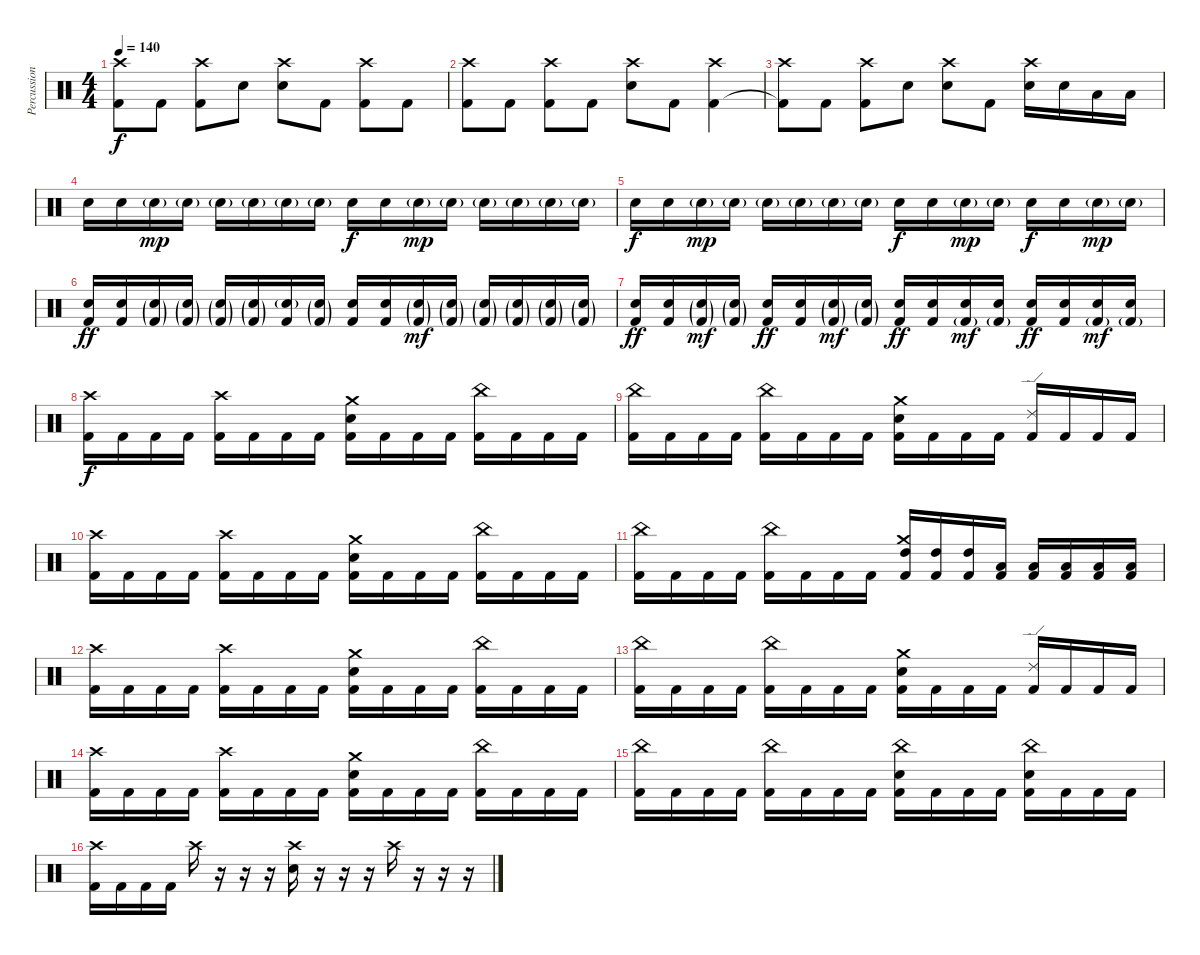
\track ("Percussions" "Percussion") {instrument percussion}
\staff {score}
\articulation defaults
\ts (4 4)
\tempo 140
\clef neutral
\ks c
("Crash high (hit)" "Kick (hit) 2"{t}).8{dy f} "Kick (hit) 2".8 ("Crash high (hit)" "Kick (hit) 2").8 "Electric Snare (hit)".8 ("Crash high (hit)" "Electric Snare (hit)").8 "Kick (hit) 2".8 ("Crash high (hit)" "Kick (hit) 2").8 "Kick (hit) 2".8 |
("Crash high (hit)" "Kick (hit) 2").8 "Kick (hit) 2".8 ("Crash high (hit)" "Kick (hit) 2").8 "Kick (hit) 2".8 ("Crash high (hit)" "Electric Snare (hit)").8 "Kick (hit) 2".8 ("Crash high (hit)" "Kick (hit) 2").4 |
("Crash high (hit)" "Kick (hit) 2"{t}).8 "Kick (hit) 2".8 ("Crash high (hit)" "Kick (hit) 2").8 "Electric Snare (hit)".8 ("Crash high (hit)" "Electric Snare (hit)").8 "Kick (hit) 2".8 ("Crash high (hit)" "Electric Snare (hit)").16 "Electric Snare (hit)".16 "Low Tom (hit)".16 "Low Tom (hit)".16 |
"Electric Snare (hit)".16 "Electric Snare (hit)".16 "Electric Snare (hit)"{g}.16{dy mp} "Electric Snare (hit)"{g}.16 "Electric Snare (hit)"{g}.16 "Electric Snare (hit)"{g}.16 "Electric Snare (hit)"{g}.16 "Electric Snare (hit)"{g}.16 "Electric Snare (hit)".16{dy f} "Electric Snare (hit)".16 "Electric Snare (hit)"{g}.16{dy mp} "Electric Snare (hit)"{g}.16 "Electric Snare (hit)"{g}.16 "Electric Snare (hit)"{g}.16 "Electric Snare (hit)"{g}.16 "Electric Snare (hit)"{g}.16 |
"Electric Snare (hit)".16{dy f} "Electric Snare (hit)".16 "Electric Snare (hit)"{g}.16{dy mp} "Electric Snare (hit)"{g}.16 "Electric Snare (hit)"{g}.16 "Electric Snare (hit)"{g}.16 "Electric Snare (hit)"{g}.16 "Electric Snare (hit)"{g}.16 "Electric Snare (hit)".16{dy f} "Electric Snare (hit)".16 "Electric Snare (hit)"{g}.16{dy mp} "Electric Snare (hit)"{g}.16 "Electric Snare (hit)".16{dy f} "Electric Snare (hit)".16 "Electric Snare (hit)"{g}.16{dy mp} "Electric Snare (hit)"{g}.16 |
("Electric Snare (hit)" "Kick (hit) 2").16{dy ff} ("Electric Snare (hit)" "Kick (hit) 2").16 ("Electric Snare (hit)"{g} "Kick (hit) 2"{g}).16 ("Electric Snare (hit)"{g} "Kick (hit) 2"{g}).16 ("Electric Snare (hit)"{g} "Kick (hit) 2"{g}).16 ("Electric Snare (hit)"{g} "Kick (hit) 2"{g}).16 ("Electric Snare (hit)"{g} "Kick (hit) 2").16 ("Electric Snare (hit)"{g} "Kick (hit) 2"{g}).16 ("Electric Snare (hit)" "Kick (hit) 2").16 ("Electric Snare (hit)" "Kick (hit) 2").16 ("Electric Snare (hit)"{g} "Kick (hit) 2"{g}).16{dy mf} ("Electric Snare (hit)"{g} "Kick (hit) 2"{g}).16 ("Electric Snare (hit)"{g} "Kick (hit) 2"{g}).16 ("Electric Snare (hit)"{g} "Kick (hit) 2"{g}).16 ("Electric Snare (hit)"{g} "Kick (hit) 2"{g}).16 ("Electric Snare (hit)"{g} "Kick (hit) 2"{g}).16 |
("Electric Snare (hit)" "Kick (hit) 2").16{dy ff} ("Electric Snare (hit)" "Kick (hit) 2").16 ("Electric Snare (hit)"{g} "Kick (hit) 2"{g}).16{dy mf} ("Electric Snare (hit)"{g} "Kick (hit) 2"{g}).16 ("Electric Snare (hit)" "Kick (hit) 2").16{dy ff} ("Electric Snare (hit)" "Kick (hit) 2").16 ("Electric Snare (hit)"{g} "Kick (hit) 2"{g}).16{dy mf} ("Electric Snare (hit)"{g} "Kick (hit) 2"{g}).16 ("Electric Snare (hit)" "Kick (hit) 2").16{dy ff} ("Electric Snare (hit)" "Kick (hit) 2").16 ("Electric Snare (hit)" "Kick (hit) 2"{g}).16{dy mf} ("Electric Snare (hit)" "Kick (hit) 2"{g}).16 ("Electric Snare (hit)" "Kick (hit) 2").16{dy ff} ("Electric Snare (hit)" "Kick (hit) 2").16 ("Electric Snare (hit)" "Kick (hit) 2"{g}).16{dy mf} ("Electric Snare (hit)" "Kick (hit) 2"{g}).16 |
("Crash high (hit)" "Kick (hit) 2").16{dy f} "Kick (hit) 2".16 "Kick (hit) 2".16 "Kick (hit) 2".16 ("Crash high (hit)" "Kick (hit) 2").16 "Kick (hit) 2".16 "Kick (hit) 2".16 "Kick (hit) 2".16 ("Crash medium (hit)" "Electric Snare (hit)" "Kick (hit) 2").16 "Kick (hit) 2".16 "Kick (hit) 2".16 "Kick (hit) 2".16 ("China (hit)" "Kick (hit) 2").16 "Kick (hit) 2".16 "Kick (hit) 2".16 "Kick (hit) 2".16 |
("China (hit)" "Kick (hit) 2").16 "Kick (hit) 2".16 "Kick (hit) 2".16 "Kick (hit) 2".16 ("China (hit)" "Kick (hit) 2").16 "Kick (hit) 2".16 "Kick (hit) 2".16 "Kick (hit) 2".16 ("Crash medium (hit)" "Electric Snare (hit)" "Kick (hit) 2").16 "Kick (hit) 2".16 "Kick (hit) 2".16 "Kick (hit) 2".16 ("Ride (edge) 2" "Kick (hit) 2").16 "Kick (hit) 2".16 "Kick (hit) 2".16 "Kick (hit) 2".16 |
("Crash high (hit)" "Kick (hit) 2").16 "Kick (hit) 2".16 "Kick (hit) 2".16 "Kick (hit) 2".16 ("Crash high (hit)" "Kick (hit) 2").16 "Kick (hit) 2".16 "Kick (hit) 2".16 "Kick (hit) 2".16 ("Crash medium (hit)" "Electric Snare (hit)" "Kick (hit) 2").16 "Kick (hit) 2".16 "Kick (hit) 2".16 "Kick (hit) 2".16 ("China (hit)" "Kick (hit) 2").16 "Kick (hit) 2".16 "Kick (hit) 2".16 "Kick (hit) 2".16 |
("China (hit)" "Kick (hit) 2").16 "Kick (hit) 2".16 "Kick (hit) 2".16 "Kick (hit) 2".16 ("China (hit)" "Kick (hit) 2").16 "Kick (hit) 2".16 "Kick (hit) 2".16 "Kick (hit) 2".16 ("Crash medium (hit)" "High Tom (hit)" "Kick (hit) 2").16 ("High Tom (hit)" "Kick (hit) 2").16 ("High Tom (hit)" "Kick (hit) 2").16 ("Low Tom (hit)" "Kick (hit) 2").16 ("Low Tom (hit)" "Kick (hit) 2").16 ("Low Floor Tom (hit)" "Kick (hit) 2").16 ("Low Floor Tom (hit)" "Kick (hit) 2").16 ("Low Floor Tom (hit)" "Kick (hit) 2").16 |
("Crash high (hit)" "Kick (hit) 2").16 "Kick (hit) 2".16 "Kick (hit) 2".16 "Kick (hit) 2".16 ("Crash high (hit)" "Kick (hit) 2").16 "Kick (hit) 2".16 "Kick (hit) 2".16 "Kick (hit) 2".16 ("Crash medium (hit)" "Electric Snare (hit)" "Kick (hit) 2").16 "Kick (hit) 2".16 "Kick (hit) 2".16 "Kick (hit) 2".16 ("China (hit)" "Kick (hit) 2").16 "Kick (hit) 2".16 "Kick (hit) 2".16 "Kick (hit) 2".16 |
("China (hit)" "Kick (hit) 2").16 "Kick (hit) 2".16 "Kick (hit) 2".16 "Kick (hit) 2".16 ("China (hit)" "Kick (hit) 2").16 "Kick (hit) 2".16 "Kick (hit) 2".16 "Kick (hit) 2".16 ("Crash medium (hit)" "Electric Snare (hit)" "Kick (hit) 2").16 "Kick (hit) 2".16 "Kick (hit) 2".16 "Kick (hit) 2".16 ("Ride (edge) 2" "Kick (hit) 2").16 "Kick (hit) 2".16 "Kick (hit) 2".16 "Kick (hit) 2".16 |
("Crash high (hit)" "Kick (hit) 2").16 "Kick (hit) 2".16 "Kick (hit) 2".16 "Kick (hit) 2".16 ("Crash high (hit)" "Kick (hit) 2").16 "Kick (hit) 2".16 "Kick (hit) 2".16 "Kick (hit) 2".16 ("Crash medium (hit)" "Electric Snare (hit)" "Kick (hit) 2").16 "Kick (hit) 2".16 "Kick (hit) 2".16 "Kick (hit) 2".16 ("China (hit)" "Kick (hit) 2").16 "Kick (hit) 2".16 "Kick (hit) 2".16 "Kick (hit) 2".16 |
("China (hit)" "Kick (hit) 2").16 "Kick (hit) 2".16 "Kick (hit) 2".16 "Kick (hit) 2".16 ("China (hit)" "Kick (hit) 2").16 "Kick (hit) 2".16 "Kick (hit) 2".16 "Kick (hit) 2".16 ("China (hit)" "Electric Snare (hit)" "Kick (hit) 2").16 "Kick (hit) 2".16 "Kick (hit) 2".16 "Kick (hit) 2".16 ("China (hit)" "Electric Snare (hit)" "Kick (hit) 2").16 "Kick (hit) 2".16 "Kick (hit) 2".16 "Kick (hit) 2".16 |
("Crash high (hit)" "Kick (hit) 2").16 "Kick (hit) 2".16 "Kick (hit) 2".16 "Kick (hit) 2".16 "Crash high (hit)".16 r.16 r.16 r.16 ("Crash high (hit)" "Electric Snare (hit)").16 r.16 r.16 r.16 "Crash high (hit)".16 r.16 r.16 r.16
